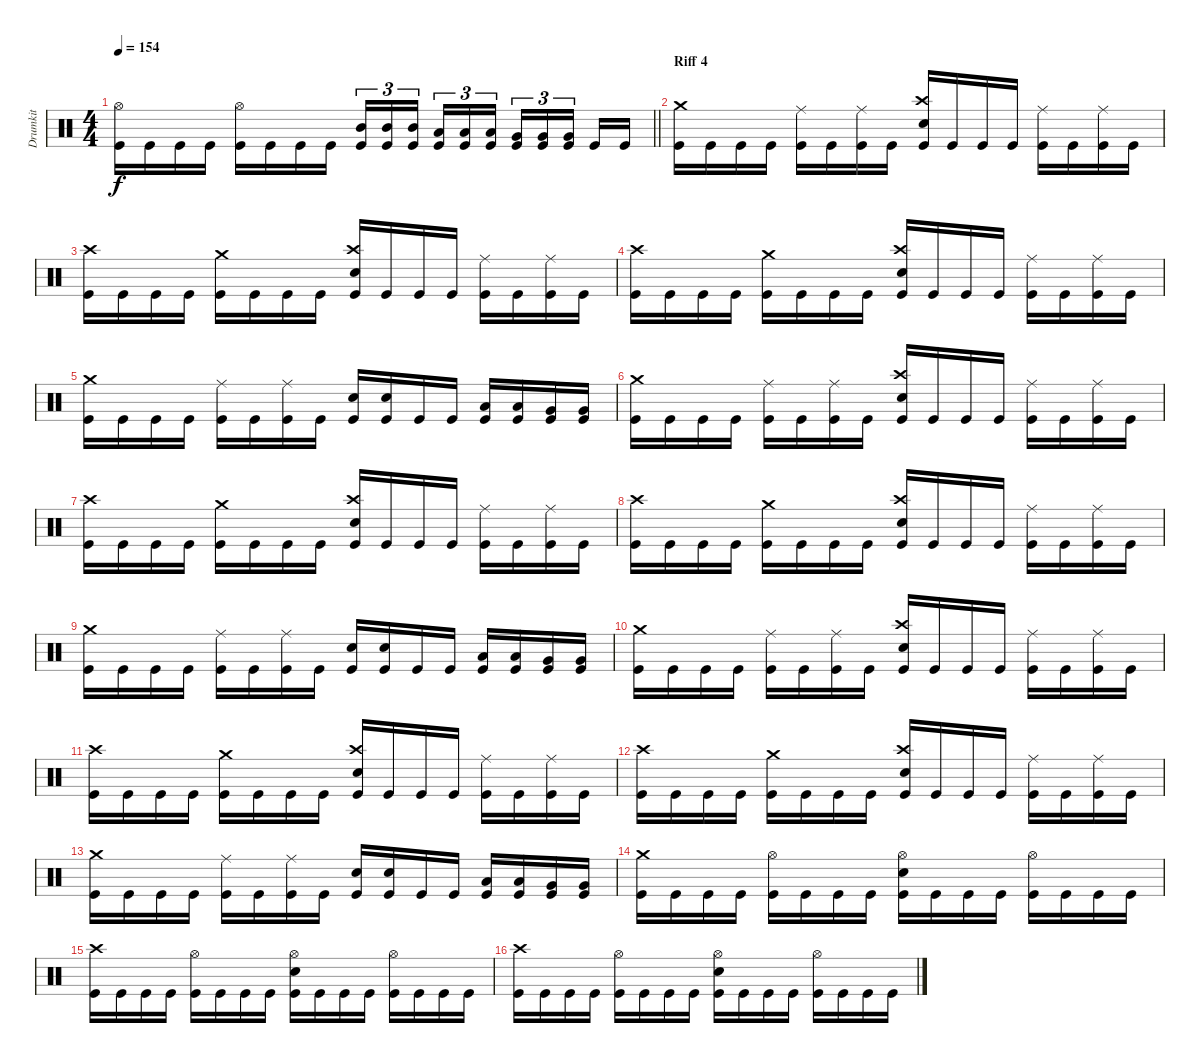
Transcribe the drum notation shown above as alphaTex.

\track ("Drumkit" "Drumkit") {mute instrument percussion}
\staff {score}
\articulation defaults
\ts (4 4)
\tempo 154
\clef neutral
\barLineRight lightlight
\ks c
("Hi-Hat (open)" "Kick (hit)").16{dy f} "Kick (hit)".16 "Kick (hit)".16 "Kick (hit)".16 ("Hi-Hat (open)" "Kick (hit)").16 "Kick (hit)".16 "Kick (hit)".16 "Kick (hit)".16 ("Mid Tom (hit)" "Kick (hit)").16{tu (3 2)} ("Mid Tom (hit)" "Kick (hit)").16{tu (3 2)} ("Mid Tom (hit)" "Kick (hit)").16{tu (3 2)} ("Low Tom (hit)" "Kick (hit)").16{tu (3 2)} ("Low Tom (hit)" "Kick (hit)").16{tu (3 2)} ("Low Tom (hit)" "Kick (hit)").16{tu (3 2)} ("Very Low Tom (hit)" "Kick (hit)").16{tu (3 2)} ("Very Low Tom (hit)" "Kick (hit)").16{tu (3 2)} ("Very Low Tom (hit)" "Kick (hit)").16{tu (3 2)} "Kick (hit)".16 "Kick (hit)".16 |
\section ("" "Riff 4")
("Crash medium (hit)" "Kick (hit)").16 "Kick (hit)".16 "Kick (hit)".16 "Kick (hit)".16 ("Ride (middle)" "Kick (hit)").16 "Kick (hit)".16 ("Ride (middle)" "Kick (hit)").16 "Kick (hit)".16 ("Crash high (hit)" "Snare (hit) 2" "Kick (hit)").16 "Kick (hit)".16 "Kick (hit)".16 "Kick (hit)".16 ("Ride (middle)" "Kick (hit)").16 "Kick (hit)".16 ("Ride (middle)" "Kick (hit)").16 "Kick (hit)".16 |
("Crash high (hit)" "Kick (hit)").16 "Kick (hit)".16 "Kick (hit)".16 "Kick (hit)".16 ("Crash medium (hit)" "Kick (hit)").16 "Kick (hit)".16 "Kick (hit)".16 "Kick (hit)".16 ("Crash high (hit)" "Snare (hit) 2" "Kick (hit)").16 "Kick (hit)".16 "Kick (hit)".16 "Kick (hit)".16 ("Ride (middle)" "Kick (hit)").16 "Kick (hit)".16 ("Ride (middle)" "Kick (hit)").16 "Kick (hit)".16 |
("Crash high (hit)" "Kick (hit)").16 "Kick (hit)".16 "Kick (hit)".16 "Kick (hit)".16 ("Crash medium (hit)" "Kick (hit)").16 "Kick (hit)".16 "Kick (hit)".16 "Kick (hit)".16 ("Crash high (hit)" "Snare (hit) 2" "Kick (hit)").16 "Kick (hit)".16 "Kick (hit)".16 "Kick (hit)".16 ("Ride (middle)" "Kick (hit)").16 "Kick (hit)".16 ("Ride (middle)" "Kick (hit)").16 "Kick (hit)".16 |
("Crash medium (hit)" "Kick (hit)").16 "Kick (hit)".16 "Kick (hit)".16 "Kick (hit)".16 ("Ride (middle)" "Kick (hit)").16 "Kick (hit)".16 ("Ride (middle)" "Kick (hit)").16 "Kick (hit)".16 ("Snare (hit) 2" "Kick (hit)").16 ("Snare (hit) 2" "Kick (hit)").16 "Kick (hit)".16 "Kick (hit)".16 ("Low Tom (hit)" "Kick (hit)").16 ("Low Tom (hit)" "Kick (hit)").16 ("Very Low Tom (hit)" "Kick (hit)").16 ("Very Low Tom (hit)" "Kick (hit)").16 |
("Crash medium (hit)" "Kick (hit)").16 "Kick (hit)".16 "Kick (hit)".16 "Kick (hit)".16 ("Ride (middle)" "Kick (hit)").16 "Kick (hit)".16 ("Ride (middle)" "Kick (hit)").16 "Kick (hit)".16 ("Crash high (hit)" "Snare (hit) 2" "Kick (hit)").16 "Kick (hit)".16 "Kick (hit)".16 "Kick (hit)".16 ("Ride (middle)" "Kick (hit)").16 "Kick (hit)".16 ("Ride (middle)" "Kick (hit)").16 "Kick (hit)".16 |
("Crash high (hit)" "Kick (hit)").16 "Kick (hit)".16 "Kick (hit)".16 "Kick (hit)".16 ("Crash medium (hit)" "Kick (hit)").16 "Kick (hit)".16 "Kick (hit)".16 "Kick (hit)".16 ("Crash high (hit)" "Snare (hit) 2" "Kick (hit)").16 "Kick (hit)".16 "Kick (hit)".16 "Kick (hit)".16 ("Ride (middle)" "Kick (hit)").16 "Kick (hit)".16 ("Ride (middle)" "Kick (hit)").16 "Kick (hit)".16 |
("Crash high (hit)" "Kick (hit)").16 "Kick (hit)".16 "Kick (hit)".16 "Kick (hit)".16 ("Crash medium (hit)" "Kick (hit)").16 "Kick (hit)".16 "Kick (hit)".16 "Kick (hit)".16 ("Crash high (hit)" "Snare (hit) 2" "Kick (hit)").16 "Kick (hit)".16 "Kick (hit)".16 "Kick (hit)".16 ("Ride (middle)" "Kick (hit)").16 "Kick (hit)".16 ("Ride (middle)" "Kick (hit)").16 "Kick (hit)".16 |
("Crash medium (hit)" "Kick (hit)").16 "Kick (hit)".16 "Kick (hit)".16 "Kick (hit)".16 ("Ride (middle)" "Kick (hit)").16 "Kick (hit)".16 ("Ride (middle)" "Kick (hit)").16 "Kick (hit)".16 ("Snare (hit) 2" "Kick (hit)").16 ("Snare (hit) 2" "Kick (hit)").16 "Kick (hit)".16 "Kick (hit)".16 ("Low Tom (hit)" "Kick (hit)").16 ("Low Tom (hit)" "Kick (hit)").16 ("Very Low Tom (hit)" "Kick (hit)").16 ("Very Low Tom (hit)" "Kick (hit)").16 |
("Crash medium (hit)" "Kick (hit)").16 "Kick (hit)".16 "Kick (hit)".16 "Kick (hit)".16 ("Ride (middle)" "Kick (hit)").16 "Kick (hit)".16 ("Ride (middle)" "Kick (hit)").16 "Kick (hit)".16 ("Crash high (hit)" "Snare (hit) 2" "Kick (hit)").16 "Kick (hit)".16 "Kick (hit)".16 "Kick (hit)".16 ("Ride (middle)" "Kick (hit)").16 "Kick (hit)".16 ("Ride (middle)" "Kick (hit)").16 "Kick (hit)".16 |
("Crash high (hit)" "Kick (hit)").16 "Kick (hit)".16 "Kick (hit)".16 "Kick (hit)".16 ("Crash medium (hit)" "Kick (hit)").16 "Kick (hit)".16 "Kick (hit)".16 "Kick (hit)".16 ("Crash high (hit)" "Snare (hit) 2" "Kick (hit)").16 "Kick (hit)".16 "Kick (hit)".16 "Kick (hit)".16 ("Ride (middle)" "Kick (hit)").16 "Kick (hit)".16 ("Ride (middle)" "Kick (hit)").16 "Kick (hit)".16 |
("Crash high (hit)" "Kick (hit)").16 "Kick (hit)".16 "Kick (hit)".16 "Kick (hit)".16 ("Crash medium (hit)" "Kick (hit)").16 "Kick (hit)".16 "Kick (hit)".16 "Kick (hit)".16 ("Crash high (hit)" "Snare (hit) 2" "Kick (hit)").16 "Kick (hit)".16 "Kick (hit)".16 "Kick (hit)".16 ("Ride (middle)" "Kick (hit)").16 "Kick (hit)".16 ("Ride (middle)" "Kick (hit)").16 "Kick (hit)".16 |
("Crash medium (hit)" "Kick (hit)").16 "Kick (hit)".16 "Kick (hit)".16 "Kick (hit)".16 ("Ride (middle)" "Kick (hit)").16 "Kick (hit)".16 ("Ride (middle)" "Kick (hit)").16 "Kick (hit)".16 ("Snare (hit) 2" "Kick (hit)").16 ("Snare (hit) 2" "Kick (hit)").16 "Kick (hit)".16 "Kick (hit)".16 ("Low Tom (hit)" "Kick (hit)").16 ("Low Tom (hit)" "Kick (hit)").16 ("Very Low Tom (hit)" "Kick (hit)").16 ("Very Low Tom (hit)" "Kick (hit)").16 |
("Crash medium (hit)" "Kick (hit)").16 "Kick (hit)".16 "Kick (hit)".16 "Kick (hit)".16 ("Hi-Hat (open)" "Kick (hit)").16 "Kick (hit)".16 "Kick (hit)".16 "Kick (hit)".16 ("Hi-Hat (open)" "Snare (hit) 2" "Kick (hit)").16 "Kick (hit)".16 "Kick (hit)".16 "Kick (hit)".16 ("Hi-Hat (open)" "Kick (hit)").16 "Kick (hit)".16 "Kick (hit)".16 "Kick (hit)".16 |
("Crash high (hit)" "Kick (hit)").16 "Kick (hit)".16 "Kick (hit)".16 "Kick (hit)".16 ("Hi-Hat (open)" "Kick (hit)").16 "Kick (hit)".16 "Kick (hit)".16 "Kick (hit)".16 ("Hi-Hat (open)" "Snare (hit) 2" "Kick (hit)").16 "Kick (hit)".16 "Kick (hit)".16 "Kick (hit)".16 ("Hi-Hat (open)" "Kick (hit)").16 "Kick (hit)".16 "Kick (hit)".16 "Kick (hit)".16 |
("Crash high (hit)" "Kick (hit)").16 "Kick (hit)".16 "Kick (hit)".16 "Kick (hit)".16 ("Hi-Hat (open)" "Kick (hit)").16 "Kick (hit)".16 "Kick (hit)".16 "Kick (hit)".16 ("Hi-Hat (open)" "Snare (hit) 2" "Kick (hit)").16 "Kick (hit)".16 "Kick (hit)".16 "Kick (hit)".16 ("Hi-Hat (open)" "Kick (hit)").16 "Kick (hit)".16 "Kick (hit)".16 "Kick (hit)".16
